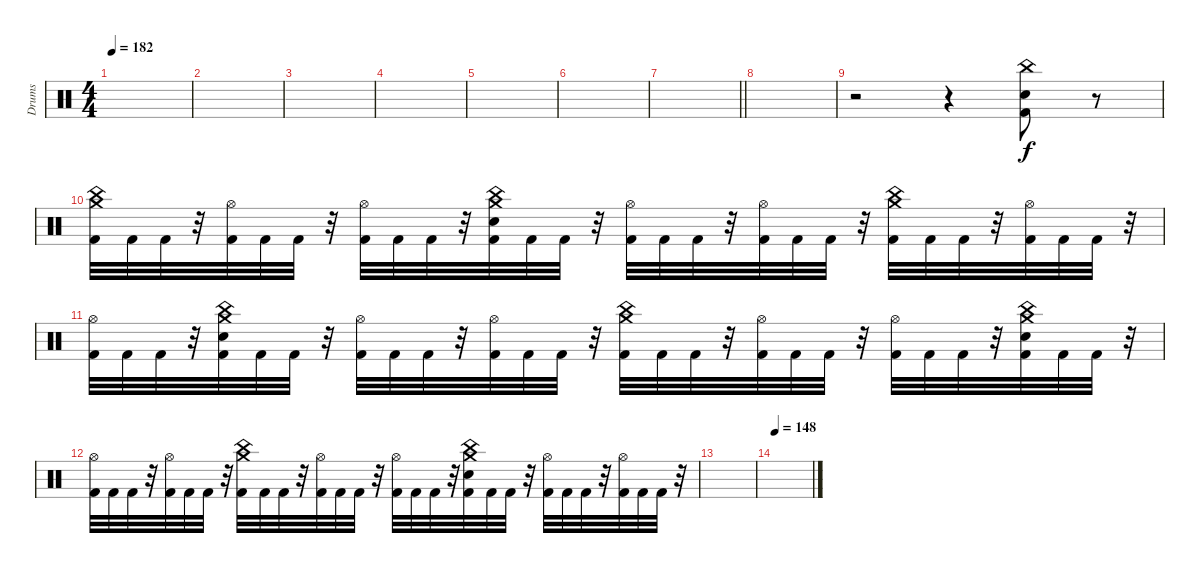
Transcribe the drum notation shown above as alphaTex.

\track ("Drums" "Drums") {instrument percussion}
\staff
\articulation defaults
\ts (4 4)
\tempo 182
\clef neutral
\ks c
|
|
|
|
|
|
\barLineRight lightlight
|
|
r.2 r.4 ("China (hit)" "Electric Snare (hit)" "Kick (hit) 2").8 r.8 |
("Crash medium (hit)" "China (hit)" "Kick (hit) 2").32 "Kick (hit) 2".32 "Kick (hit) 2".32 r.32 ("Hi-Hat (open)" "Kick (hit) 2").32 "Kick (hit) 2".32 "Kick (hit) 2".32 r.32 ("Hi-Hat (open)" "Kick (hit) 2").32 "Kick (hit) 2".32 "Kick (hit) 2".32 r.32 ("Crash medium (hit)" "China (hit)" "Electric Snare (hit)" "Kick (hit) 2").32 "Kick (hit) 2".32 "Kick (hit) 2".32 r.32 ("Hi-Hat (open)" "Kick (hit) 2").32 "Kick (hit) 2".32 "Kick (hit) 2".32 r.32 ("Hi-Hat (open)" "Kick (hit) 2").32 "Kick (hit) 2".32 "Kick (hit) 2".32 r.32 ("Crash medium (hit)" "China (hit)" "Kick (hit) 2").32 "Kick (hit) 2".32 "Kick (hit) 2".32 r.32 ("Hi-Hat (open)" "Kick (hit) 2").32 "Kick (hit) 2".32 "Kick (hit) 2".32 r.32 |
("Hi-Hat (open)" "Kick (hit) 2").32 "Kick (hit) 2".32 "Kick (hit) 2".32 r.32 ("Crash medium (hit)" "China (hit)" "Electric Snare (hit)" "Kick (hit) 2").32 "Kick (hit) 2".32 "Kick (hit) 2".32 r.32 ("Hi-Hat (open)" "Kick (hit) 2").32 "Kick (hit) 2".32 "Kick (hit) 2".32 r.32 ("Hi-Hat (open)" "Kick (hit) 2").32 "Kick (hit) 2".32 "Kick (hit) 2".32 r.32 ("Crash medium (hit)" "China (hit)" "Kick (hit) 2").32 "Kick (hit) 2".32 "Kick (hit) 2".32 r.32 ("Hi-Hat (open)" "Kick (hit) 2").32 "Kick (hit) 2".32 "Kick (hit) 2".32 r.32 ("Hi-Hat (open)" "Kick (hit) 2").32 "Kick (hit) 2".32 "Kick (hit) 2".32 r.32 ("Crash medium (hit)" "China (hit)" "Electric Snare (hit)" "Kick (hit) 2").32 "Kick (hit) 2".32 "Kick (hit) 2".32 r.32 |
("Hi-Hat (open)" "Kick (hit) 2").32 "Kick (hit) 2".32 "Kick (hit) 2".32 r.32 ("Hi-Hat (open)" "Kick (hit) 2").32 "Kick (hit) 2".32 "Kick (hit) 2".32 r.32 ("Crash medium (hit)" "China (hit)" "Kick (hit) 2").32 "Kick (hit) 2".32 "Kick (hit) 2".32 r.32 ("Hi-Hat (open)" "Kick (hit) 2").32 "Kick (hit) 2".32 "Kick (hit) 2".32 r.32 ("Hi-Hat (open)" "Kick (hit) 2").32 "Kick (hit) 2".32 "Kick (hit) 2".32 r.32 ("Crash medium (hit)" "China (hit)" "Electric Snare (hit)" "Kick (hit) 2").32 "Kick (hit) 2".32 "Kick (hit) 2".32 r.32 ("Hi-Hat (open)" "Kick (hit) 2").32 "Kick (hit) 2".32 "Kick (hit) 2".32 r.32 ("Hi-Hat (open)" "Kick (hit) 2").32 "Kick (hit) 2".32 "Kick (hit) 2".32 r.32 |
|
\tempo 148
